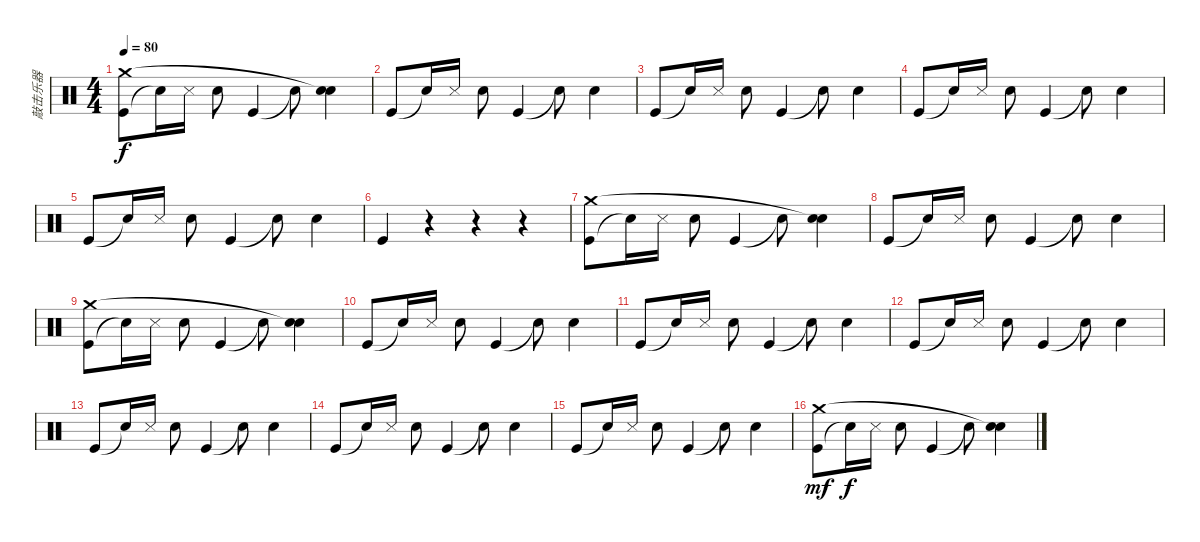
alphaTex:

\track ("敲击乐器" "敲击乐器") {instrument percussion}
\staff {score}
\articulation defaults
\ts (4 4)
\tempo 80
\clef neutral
\ks c
("Kick (hit)" "Crash medium (hit)").8{dy f} "Snare (hit)"{t}.16 "Metronome (hit)".16 "Metronome (bell)".8 "Kick (hit)".4 "Snare (hit)"{t}.8 ("Metronome (bell)" "Snare (hit)"{t}).4 |
"Kick (hit)".8 "Snare (hit)"{t}.16 "Metronome (hit)".16 "Metronome (bell)".8 "Kick (hit)".4 "Snare (hit)"{t}.8 "Metronome (bell)".4 |
"Kick (hit)".8 "Snare (hit)"{t}.16 "Metronome (hit)".16 "Metronome (bell)".8 "Kick (hit)".4 "Snare (hit)"{t}.8 "Metronome (bell)".4 |
"Kick (hit)".8 "Snare (hit)"{t}.16 "Metronome (hit)".16 "Metronome (bell)".8 "Kick (hit)".4 "Snare (hit)"{t}.8 "Metronome (bell)".4 |
"Kick (hit)".8 "Snare (hit)"{t}.16 "Metronome (hit)".16 "Metronome (bell)".8 "Kick (hit)".4 "Snare (hit)"{t}.8 "Metronome (bell)".4 |
"Kick (hit)".4 r.4 r.4 r.4 |
("Kick (hit)" "Crash medium (hit)").8 "Snare (hit)"{t}.16 "Metronome (hit)".16 "Metronome (bell)".8 "Kick (hit)".4 "Snare (hit)"{t}.8 ("Metronome (bell)" "Snare (hit)"{t}).4 |
"Kick (hit)".8 "Snare (hit)"{t}.16 "Metronome (hit)".16 "Metronome (bell)".8 "Kick (hit)".4 "Snare (hit)"{t}.8 "Metronome (bell)".4 |
("Kick (hit)" "Crash medium (hit)").8 "Snare (hit)"{t}.16 "Metronome (hit)".16 "Metronome (bell)".8 "Kick (hit)".4 "Snare (hit)"{t}.8 ("Metronome (bell)" "Snare (hit)"{t}).4 |
"Kick (hit)".8 "Snare (hit)"{t}.16 "Metronome (hit)".16 "Metronome (bell)".8 "Kick (hit)".4 "Snare (hit)"{t}.8 "Metronome (bell)".4 |
"Kick (hit)".8 "Snare (hit)"{t}.16 "Metronome (hit)".16 "Metronome (bell)".8 "Kick (hit)".4 "Snare (hit)"{t}.8 "Metronome (bell)".4 |
"Kick (hit)".8 "Snare (hit)"{t}.16 "Metronome (hit)".16 "Metronome (bell)".8 "Kick (hit)".4 "Snare (hit)"{t}.8 "Metronome (bell)".4 |
"Kick (hit)".8 "Snare (hit)"{t}.16 "Metronome (hit)".16 "Metronome (bell)".8 "Kick (hit)".4 "Snare (hit)"{t}.8 "Metronome (bell)".4 |
"Kick (hit)".8 "Snare (hit)"{t}.16 "Metronome (hit)".16 "Metronome (bell)".8 "Kick (hit)".4 "Snare (hit)"{t}.8 "Metronome (bell)".4 |
"Kick (hit)".8 "Snare (hit)"{t}.16 "Metronome (hit)".16 "Metronome (bell)".8 "Kick (hit)".4 "Snare (hit)"{t}.8 "Metronome (bell)".4 |
("Kick (hit)" "Crash medium (hit)").8{dy mf} "Snare (hit)"{t}.16{dy f} "Metronome (hit)".16 "Metronome (bell)".8 "Kick (hit)".4 "Snare (hit)"{t}.8 ("Metronome (bell)" "Snare (hit)"{t}).4
